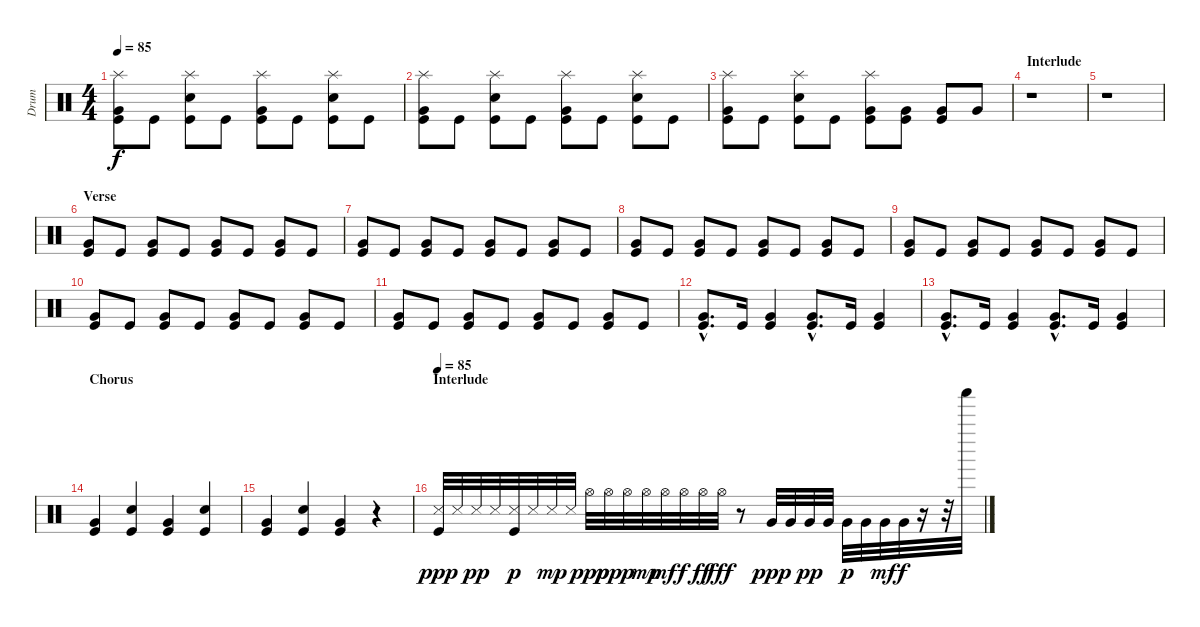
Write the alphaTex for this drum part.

\track ("Drum" "Drum") {instrument percussion}
\staff {score}
\articulation defaults
\ts (4 4)
\tempo 85
\clef neutral
\ks c
("Splash (hit)" "Very Low Tom (hit)" "Kick (hit)").8{dy f} "Kick (hit)".8 ("Splash (hit)" "Snare (hit) 2" "Kick (hit)").8 "Kick (hit)".8 ("Splash (hit)" "Very Low Tom (hit)" "Kick (hit)").8 "Kick (hit)".8 ("Splash (hit)" "Snare (hit) 2" "Kick (hit)").8 "Kick (hit)".8 |
("Splash (hit)" "Very Low Tom (hit)" "Kick (hit)").8 "Kick (hit)".8 ("Splash (hit)" "Snare (hit) 2" "Kick (hit)").8 "Kick (hit)".8 ("Splash (hit)" "Very Low Tom (hit)" "Kick (hit)").8 "Kick (hit)".8 ("Splash (hit)" "Snare (hit) 2" "Kick (hit)").8 "Kick (hit)".8 |
("Splash (hit)" "Very Low Tom (hit)" "Kick (hit)").8 "Kick (hit)".8 ("Splash (hit)" "Snare (hit) 2" "Kick (hit)").8 "Kick (hit)".8 ("Splash (hit)" "Very Low Tom (hit)" "Kick (hit)").8 ("Kick (hit)" "Very Low Tom (hit)").8 ("Very Low Tom (hit)" "Kick (hit)").8 "Very Low Tom (hit)".8 |
\section ("" "Interlude")
r.1 |
r.1 |
\section ("" "Verse")
("Very Low Tom (hit)" "Kick (hit)").8 "Kick (hit)".8 ("Very Low Tom (hit)" "Kick (hit)").8 "Kick (hit)".8 ("Very Low Tom (hit)" "Kick (hit)").8 "Kick (hit)".8 ("Very Low Tom (hit)" "Kick (hit)").8 "Kick (hit)".8 |
("Very Low Tom (hit)" "Kick (hit)").8 "Kick (hit)".8 ("Very Low Tom (hit)" "Kick (hit)").8 "Kick (hit)".8 ("Very Low Tom (hit)" "Kick (hit)").8 "Kick (hit)".8 ("Very Low Tom (hit)" "Kick (hit)").8 "Kick (hit)".8 |
("Very Low Tom (hit)" "Kick (hit)").8 "Kick (hit)".8 ("Very Low Tom (hit)" "Kick (hit)").8 "Kick (hit)".8 ("Very Low Tom (hit)" "Kick (hit)").8 "Kick (hit)".8 ("Very Low Tom (hit)" "Kick (hit)").8 "Kick (hit)".8 |
("Very Low Tom (hit)" "Kick (hit)").8 "Kick (hit)".8 ("Very Low Tom (hit)" "Kick (hit)").8 "Kick (hit)".8 ("Very Low Tom (hit)" "Kick (hit)").8 "Kick (hit)".8 ("Very Low Tom (hit)" "Kick (hit)").8 "Kick (hit)".8 |
("Very Low Tom (hit)" "Kick (hit)").8 "Kick (hit)".8 ("Very Low Tom (hit)" "Kick (hit)").8 "Kick (hit)".8 ("Very Low Tom (hit)" "Kick (hit)").8 "Kick (hit)".8 ("Very Low Tom (hit)" "Kick (hit)").8 "Kick (hit)".8 |
("Very Low Tom (hit)" "Kick (hit)").8 "Kick (hit)".8 ("Very Low Tom (hit)" "Kick (hit)").8 "Kick (hit)".8 ("Very Low Tom (hit)" "Kick (hit)").8 "Kick (hit)".8 ("Very Low Tom (hit)" "Kick (hit)").8 "Kick (hit)".8 |
("Very Low Tom (hit)"{hac} "Kick (hit)"{hac}).8{d} "Kick (hit)".16 ("Very Low Tom (hit)" "Kick (hit)").4 ("Very Low Tom (hit)"{hac} "Kick (hit)"{hac}).8{d} "Kick (hit)".16 ("Very Low Tom (hit)" "Kick (hit)").4 |
("Very Low Tom (hit)"{hac} "Kick (hit)"{hac}).8{d} "Kick (hit)".16 ("Very Low Tom (hit)" "Kick (hit)").4 ("Very Low Tom (hit)"{hac} "Kick (hit)"{hac}).8{d} "Kick (hit)".16 ("Very Low Tom (hit)" "Kick (hit)").4 |
\section ("" "Chorus")
("Very Low Tom (hit)" "Kick (hit)").4 ("Snare (hit) 2" "Kick (hit)").4 ("Very Low Tom (hit)" "Kick (hit)").4 ("Snare (hit) 2" "Kick (hit)").4 |
("Very Low Tom (hit)" "Kick (hit)").4 ("Snare (hit) 2" "Kick (hit)").4 ("Very Low Tom (hit)" "Kick (hit)").4 r.4 |
\section ("" "Interlude")
\tempo 85
("Snare (side stick) 3" "Kick (hit)").32{dy ppp} "Snare (side stick) 3".32 "Snare (side stick) 3".32{dy pp} "Snare (side stick) 3".32 ("Snare (side stick) 3" "Kick (hit)").32{dy p} "Snare (side stick) 3".32 "Snare (side stick) 3".32{dy mp} "Snare (side stick) 3".32 "Hi-Hat (open)".32{dy ppp} "Hi-Hat (open)".32{dy pp} "Hi-Hat (open)".32{dy p} "Hi-Hat (open)".32{dy mp} "Hi-Hat (open)".32{dy mf} "Hi-Hat (open)".32{dy f} "Hi-Hat (open)".32{dy ff} "Hi-Hat (open)".32{dy fff} r.8 "Very Low Tom (hit)".32{dy ppp} "Very Low Tom (hit)".32 "Very Low Tom (hit)".32{dy pp} "Very Low Tom (hit)".32 "Very Low Tom (hit)".32{dy p} "Very Low Tom (hit)".32 "Very Low Tom (hit)".32{dy mf} "Very Low Tom (hit)".32{dy f} r.16 r.32 "Shaker (hit)".32
